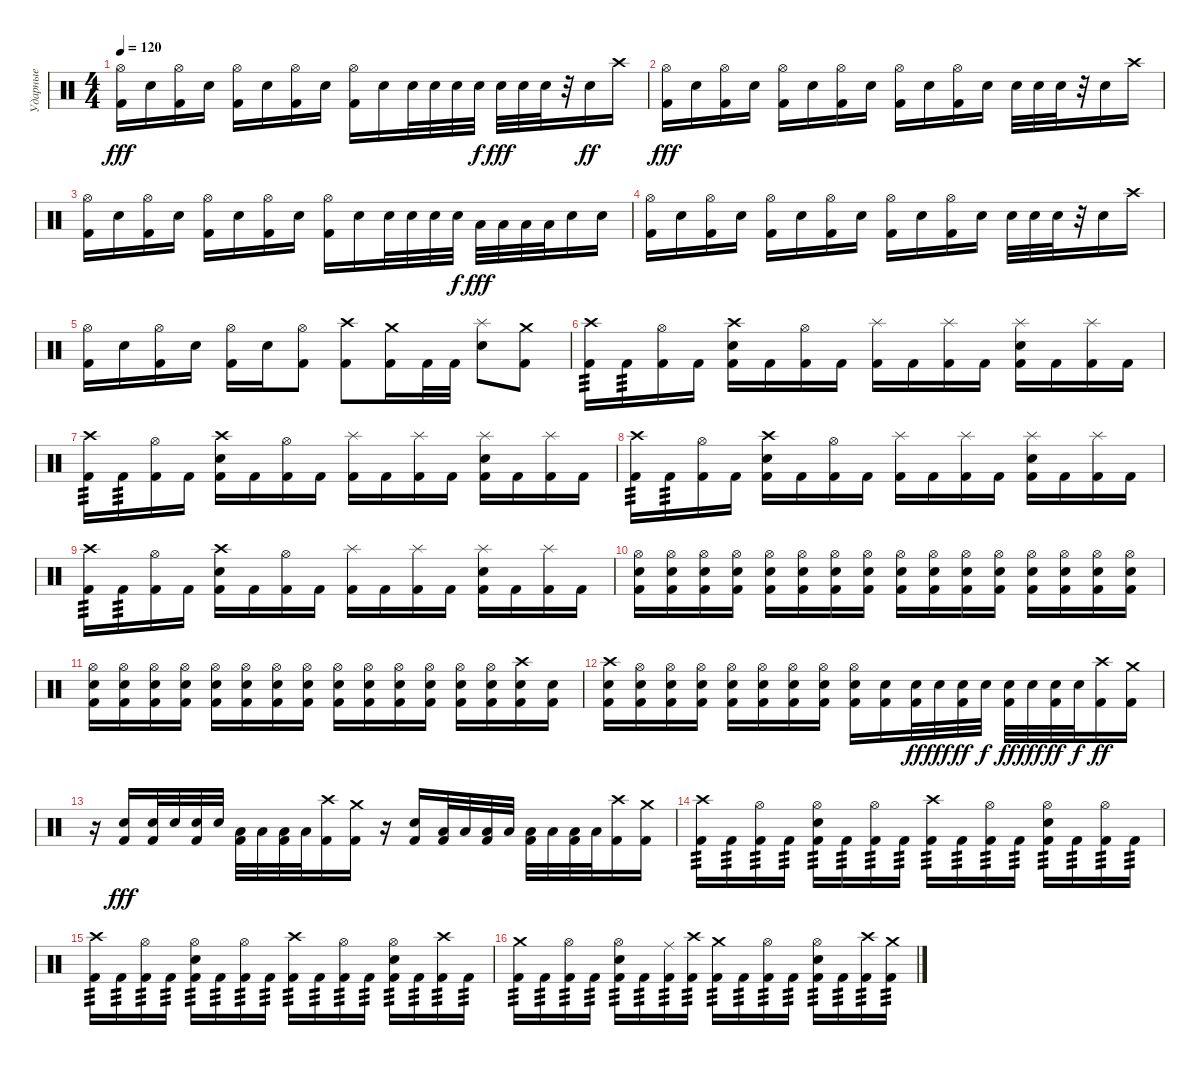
\track ("Ударные" "Ударные") {instrument percussion}
\staff {score}
\articulation defaults
\ts (4 4)
\tempo 120
\clef neutral
\ks c
("Hi-Hat (open)" "Kick (hit) 2").16{dy fff} "Snare (hit) 2".16 ("Hi-Hat (open)" "Kick (hit) 2").16 "Snare (hit) 2".16 ("Hi-Hat (open)" "Kick (hit) 2").16 "Snare (hit) 2".16 ("Hi-Hat (open)" "Kick (hit) 2").16 "Snare (hit) 2".16 ("Hi-Hat (open)" "Kick (hit) 2").16 "Snare (hit) 2".16 "Snare (hit) 2".32 "Snare (hit) 2".32 "Snare (hit) 2".32 "Snare (hit) 2".32{dy f} "Snare (hit) 2".32{dy fff} "Snare (hit) 2".32 "Snare (hit) 2".32 r.32 "Snare (hit) 2".16{dy ff} "Crash high (hit)".16 |
("Hi-Hat (open)" "Kick (hit) 2").16{dy fff} "Snare (hit) 2".16 ("Hi-Hat (open)" "Kick (hit) 2").16 "Snare (hit) 2".16 ("Hi-Hat (open)" "Kick (hit) 2").16 "Snare (hit) 2".16 ("Hi-Hat (open)" "Kick (hit) 2").16 "Snare (hit) 2".16 ("Hi-Hat (open)" "Kick (hit) 2").16 "Snare (hit) 2".16 ("Hi-Hat (open)" "Kick (hit) 2").16 "Snare (hit) 2".16 "Snare (hit) 2".32 "Snare (hit) 2".32 "Snare (hit) 2".32 r.32 "Snare (hit) 2".16 "Crash high (hit)".16 |
("Hi-Hat (open)" "Kick (hit) 2").16 "Snare (hit) 2".16 ("Hi-Hat (open)" "Kick (hit) 2").16 "Snare (hit) 2".16 ("Hi-Hat (open)" "Kick (hit) 2").16 "Snare (hit) 2".16 ("Hi-Hat (open)" "Kick (hit) 2").16 "Snare (hit) 2".16 ("Hi-Hat (open)" "Kick (hit) 2").16 "Snare (hit) 2".16 "Snare (hit) 2".32 "Snare (hit) 2".32 "Snare (hit) 2".32 "Snare (hit) 2".32{dy f} "Low Tom (hit)".32{dy fff} "Low Tom (hit)".32 "Low Tom (hit)".32 "Low Tom (hit)".32 "Snare (hit) 2".16 "Snare (hit) 2".16 |
("Hi-Hat (open)" "Kick (hit) 2").16 "Snare (hit) 2".16 ("Hi-Hat (open)" "Kick (hit) 2").16 "Snare (hit) 2".16 ("Hi-Hat (open)" "Kick (hit) 2").16 "Snare (hit) 2".16 ("Hi-Hat (open)" "Kick (hit) 2").16 "Snare (hit) 2".16 ("Hi-Hat (open)" "Kick (hit) 2").16 "Snare (hit) 2".16 ("Hi-Hat (open)" "Kick (hit) 2").16 "Snare (hit) 2".16 "Snare (hit) 2".32 "Snare (hit) 2".32 "Snare (hit) 2".32 r.32 "Snare (hit) 2".16 "Crash high (hit)".16 |
("Hi-Hat (open)" "Kick (hit) 2").16 "Snare (hit) 2".16 ("Hi-Hat (open)" "Kick (hit) 2").16 "Snare (hit) 2".16 ("Hi-Hat (open)" "Kick (hit) 2").16 "Snare (hit) 2".16 ("Hi-Hat (open)" "Kick (hit) 2").8 ("Crash high (hit)" "Kick (hit) 2").8 ("Crash medium (hit)" "Kick (hit) 2").16 "Kick (hit) 2".32 "Kick (hit) 2".32 ("Splash (hit)" "Snare (hit) 2").8 ("Crash medium (hit)" "Kick (hit) 2").8 |
("Crash high (hit)" "Kick (hit) 2").16{tp 3} "Kick (hit) 2".16{tp 3} ("Hi-Hat (open)" "Kick (hit) 2").16 "Kick (hit) 2".16 ("Crash high (hit)" "Snare (hit) 2" "Kick (hit) 2").16 "Kick (hit) 2".16 ("Hi-Hat (open)" "Kick (hit) 2").16 "Kick (hit) 2".16 ("Splash (hit)" "Kick (hit) 2").16 "Kick (hit) 2".16 ("Splash (hit)" "Kick (hit) 2").16 "Kick (hit) 2".16 ("Splash (hit)" "Snare (hit) 2" "Kick (hit) 2").16 "Kick (hit) 2".16 ("Splash (hit)" "Kick (hit) 2").16 "Kick (hit) 2".16 |
("Crash high (hit)" "Kick (hit) 2").16{tp 3} "Kick (hit) 2".16{tp 3} ("Hi-Hat (open)" "Kick (hit) 2").16 "Kick (hit) 2".16 ("Crash high (hit)" "Snare (hit) 2" "Kick (hit) 2").16 "Kick (hit) 2".16 ("Hi-Hat (open)" "Kick (hit) 2").16 "Kick (hit) 2".16 ("Splash (hit)" "Kick (hit) 2").16 "Kick (hit) 2".16 ("Splash (hit)" "Kick (hit) 2").16 "Kick (hit) 2".16 ("Splash (hit)" "Snare (hit) 2" "Kick (hit) 2").16 "Kick (hit) 2".16 ("Splash (hit)" "Kick (hit) 2").16 "Kick (hit) 2".16 |
("Crash high (hit)" "Kick (hit) 2").16{tp 3} "Kick (hit) 2".16{tp 3} ("Hi-Hat (open)" "Kick (hit) 2").16 "Kick (hit) 2".16 ("Crash high (hit)" "Snare (hit) 2" "Kick (hit) 2").16 "Kick (hit) 2".16 ("Hi-Hat (open)" "Kick (hit) 2").16 "Kick (hit) 2".16 ("Splash (hit)" "Kick (hit) 2").16 "Kick (hit) 2".16 ("Splash (hit)" "Kick (hit) 2").16 "Kick (hit) 2".16 ("Splash (hit)" "Snare (hit) 2" "Kick (hit) 2").16 "Kick (hit) 2".16 ("Splash (hit)" "Kick (hit) 2").16 "Kick (hit) 2".16 |
("Crash high (hit)" "Kick (hit) 2").16{tp 3} "Kick (hit) 2".16{tp 3} ("Hi-Hat (open)" "Kick (hit) 2").16 "Kick (hit) 2".16 ("Crash high (hit)" "Snare (hit) 2" "Kick (hit) 2").16 "Kick (hit) 2".16 ("Hi-Hat (open)" "Kick (hit) 2").16 "Kick (hit) 2".16 ("Splash (hit)" "Kick (hit) 2").16 "Kick (hit) 2".16 ("Splash (hit)" "Kick (hit) 2").16 "Kick (hit) 2".16 ("Splash (hit)" "Snare (hit) 2" "Kick (hit) 2").16 "Kick (hit) 2".16 ("Splash (hit)" "Kick (hit) 2").16 "Kick (hit) 2".16 |
("Hi-Hat (open)" "Snare (hit) 2" "Kick (hit) 2").16 ("Hi-Hat (open)" "Snare (hit) 2" "Kick (hit) 2").16 ("Hi-Hat (open)" "Snare (hit) 2" "Kick (hit) 2").16 ("Hi-Hat (open)" "Snare (hit) 2" "Kick (hit) 2").16 ("Hi-Hat (open)" "Snare (hit) 2" "Kick (hit) 2").16 ("Hi-Hat (open)" "Snare (hit) 2" "Kick (hit) 2").16 ("Hi-Hat (open)" "Snare (hit) 2" "Kick (hit) 2").16 ("Hi-Hat (open)" "Snare (hit) 2" "Kick (hit) 2").16 ("Hi-Hat (open)" "Snare (hit) 2" "Kick (hit) 2").16 ("Hi-Hat (open)" "Snare (hit) 2" "Kick (hit) 2").16 ("Hi-Hat (open)" "Snare (hit) 2" "Kick (hit) 2").16 ("Hi-Hat (open)" "Snare (hit) 2" "Kick (hit) 2").16 ("Hi-Hat (open)" "Snare (hit) 2" "Kick (hit) 2").16 ("Hi-Hat (open)" "Snare (hit) 2" "Kick (hit) 2").16 ("Hi-Hat (open)" "Snare (hit) 2" "Kick (hit) 2").16 ("Hi-Hat (open)" "Snare (hit) 2" "Kick (hit) 2").16 |
("Hi-Hat (open)" "Snare (hit) 2" "Kick (hit) 2").16 ("Hi-Hat (open)" "Snare (hit) 2" "Kick (hit) 2").16 ("Hi-Hat (open)" "Snare (hit) 2" "Kick (hit) 2").16 ("Hi-Hat (open)" "Snare (hit) 2" "Kick (hit) 2").16 ("Hi-Hat (open)" "Snare (hit) 2" "Kick (hit) 2").16 ("Hi-Hat (open)" "Snare (hit) 2" "Kick (hit) 2").16 ("Hi-Hat (open)" "Snare (hit) 2" "Kick (hit) 2").16 ("Hi-Hat (open)" "Snare (hit) 2" "Kick (hit) 2").16 ("Hi-Hat (open)" "Snare (hit) 2" "Kick (hit) 2").16 ("Hi-Hat (open)" "Snare (hit) 2" "Kick (hit) 2").16 ("Hi-Hat (open)" "Snare (hit) 2" "Kick (hit) 2").16 ("Hi-Hat (open)" "Snare (hit) 2" "Kick (hit) 2").16 ("Hi-Hat (open)" "Snare (hit) 2" "Kick (hit) 2").16 ("Hi-Hat (open)" "Snare (hit) 2" "Kick (hit) 2").16 ("Crash high (hit)" "Snare (hit) 2" "Kick (hit) 2").16 ("Snare (hit) 2" "Kick (hit) 2").16 |
("Crash high (hit)" "Snare (hit) 2" "Kick (hit) 2").16 ("Hi-Hat (open)" "Snare (hit) 2" "Kick (hit) 2").16 ("Hi-Hat (open)" "Snare (hit) 2" "Kick (hit) 2").16 ("Hi-Hat (open)" "Snare (hit) 2" "Kick (hit) 2").16 ("Hi-Hat (open)" "Snare (hit) 2" "Kick (hit) 2").16 ("Hi-Hat (open)" "Snare (hit) 2" "Kick (hit) 2").16 ("Hi-Hat (open)" "Snare (hit) 2" "Kick (hit) 2").16 ("Hi-Hat (open)" "Snare (hit) 2" "Kick (hit) 2").16 ("Hi-Hat (open)" "Snare (hit) 2" "Kick (hit) 2").16 ("Snare (hit) 2" "Kick (hit) 2").16 ("Snare (hit) 2" "Kick (hit) 2").32{dy ff} "Snare (hit) 2".32{dy fff} ("Snare (hit) 2" "Kick (hit) 2").32{dy ff} "Snare (hit) 2".32{dy f} ("Snare (hit) 2" "Kick (hit) 2").32{dy ff} "Snare (hit) 2".32{dy fff} ("Snare (hit) 2" "Kick (hit) 2").32{dy ff} "Snare (hit) 2".32{dy f} ("Crash high (hit)" "Kick (hit) 2").16{dy ff} ("Crash medium (hit)" "Kick (hit) 2").16 |
r.16 ("Snare (hit) 2" "Kick (hit) 2").16{dy fff} ("Snare (hit) 2" "Kick (hit) 2").32 "Snare (hit) 2".32 ("Snare (hit) 2" "Kick (hit) 2").32 "Snare (hit) 2".32 ("Low Tom (hit)" "Kick (hit) 2").32 "Low Tom (hit)".32 ("Low Tom (hit)" "Kick (hit) 2").32 "Low Tom (hit)".32 ("Crash high (hit)" "Kick (hit) 2").16 ("Crash medium (hit)" "Kick (hit) 2").16 r.16 ("Snare (hit) 2" "Kick (hit) 2").16 ("Low Tom (hit)" "Kick (hit) 2").32 "Low Tom (hit)".32 ("Low Tom (hit)" "Kick (hit) 2").32 "Low Tom (hit)".32 ("Low Floor Tom (hit)" "Kick (hit) 2").32 "Low Floor Tom (hit)".32 ("Low Floor Tom (hit)" "Kick (hit) 2").32 "Low Floor Tom (hit)".32 ("Crash high (hit)" "Kick (hit) 2").16 ("Crash medium (hit)" "Kick (hit) 2").16 |
("Crash high (hit)" "Kick (hit) 2").16{tp 3} "Kick (hit) 2".16{tp 3} ("Hi-Hat (open)" "Kick (hit) 2").16{tp 3} "Kick (hit) 2".16{tp 3} ("Hi-Hat (open)" "Snare (hit) 2" "Kick (hit) 2").16{tp 3} "Kick (hit) 2".16{tp 3} ("Hi-Hat (open)" "Kick (hit) 2").16{tp 3} "Kick (hit) 2".16{tp 3} ("Crash high (hit)" "Kick (hit) 2").16{tp 3} "Kick (hit) 2".16{tp 3} ("Hi-Hat (open)" "Kick (hit) 2").16{tp 3} "Kick (hit) 2".16{tp 3} ("Hi-Hat (open)" "Snare (hit) 2" "Kick (hit) 2").16{tp 3} "Kick (hit) 2".16{tp 3} ("Hi-Hat (open)" "Kick (hit) 2").16{tp 3} "Kick (hit) 2".16{tp 3} |
("Crash high (hit)" "Kick (hit) 2").16{tp 3} "Kick (hit) 2".16{tp 3} ("Hi-Hat (open)" "Kick (hit) 2").16{tp 3} "Kick (hit) 2".16{tp 3} ("Hi-Hat (open)" "Snare (hit) 2" "Kick (hit) 2").16{tp 3} "Kick (hit) 2".16{tp 3} ("Hi-Hat (open)" "Kick (hit) 2").16{tp 3} "Kick (hit) 2".16{tp 3} ("Crash high (hit)" "Kick (hit) 2").16{tp 3} "Kick (hit) 2".16{tp 3} ("Hi-Hat (open)" "Kick (hit) 2").16{tp 3} "Kick (hit) 2".16{tp 3} ("Hi-Hat (open)" "Snare (hit) 2" "Kick (hit) 2").16{tp 3} "Kick (hit) 2".16{tp 3} ("Crash high (hit)" "Kick (hit) 2").16{tp 3} "Kick (hit) 2".16{tp 3} |
("Crash medium (hit)" "Kick (hit) 2").16{tp 3} "Kick (hit) 2".16{tp 3} ("Hi-Hat (open)" "Kick (hit) 2").16{tp 3} "Kick (hit) 2".16{tp 3} ("Hi-Hat (open)" "Snare (hit) 2" "Kick (hit) 2").16{tp 3} "Kick (hit) 2".16{tp 3} ("Ride (middle)" "Kick (hit) 2").16{tp 3} ("Crash high (hit)" "Kick (hit) 2").16{tp 3} ("Crash medium (hit)" "Kick (hit) 2").16{tp 3} "Kick (hit) 2".16{tp 3} ("Hi-Hat (open)" "Kick (hit) 2").16{tp 3} "Kick (hit) 2".16{tp 3} ("Hi-Hat (open)" "Snare (hit) 2" "Kick (hit) 2").16{tp 3} "Kick (hit) 2".16{tp 3} ("Crash high (hit)" "Kick (hit) 2").16{tp 3} ("Crash medium (hit)" "Kick (hit) 2").16{tp 3}
